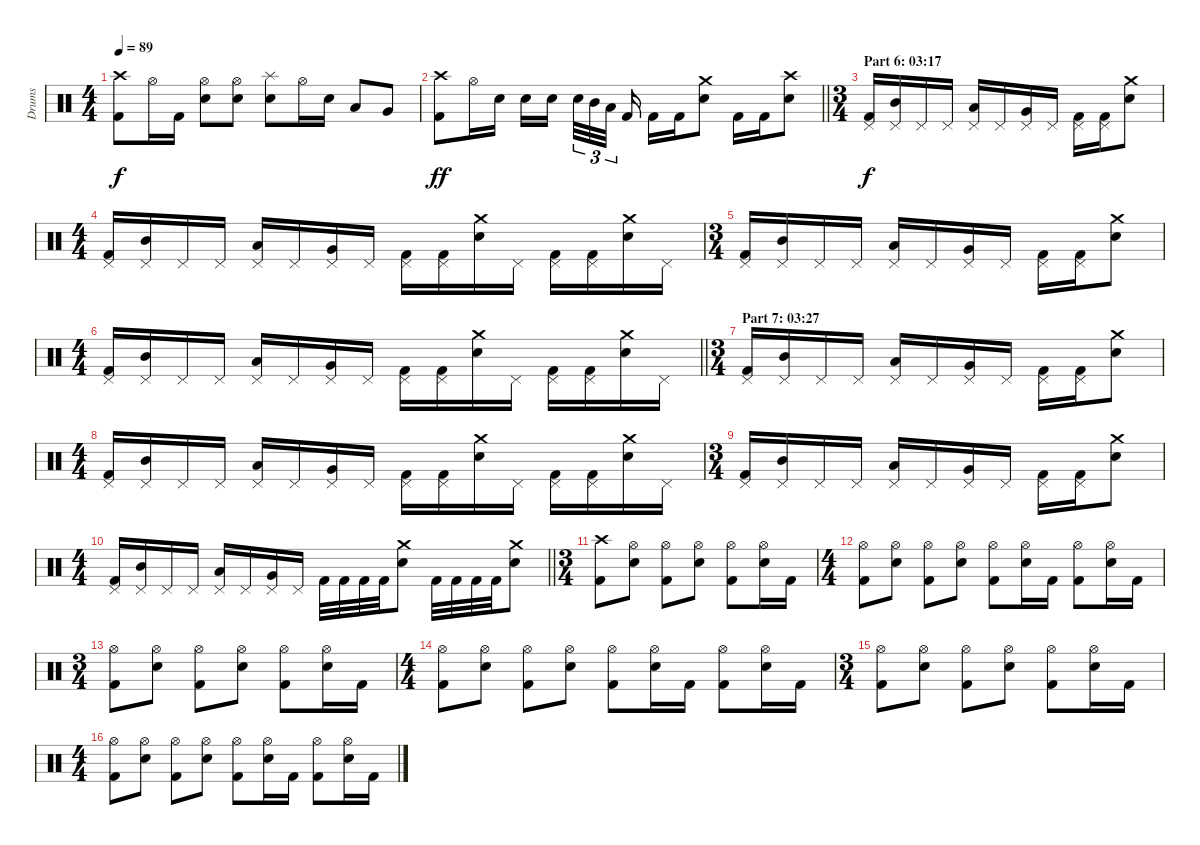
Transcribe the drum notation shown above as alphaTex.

\track ("Drums" "Drums") {instrument percussion}
\staff {score}
\articulation defaults
\ts (4 4)
\tempo 89
\clef neutral
\ks c
("Crash high (hit)" "Kick (hit) 2").8{dy f} "Hi-Hat (open)".16 "Kick (hit) 2".16 ("Hi-Hat (open)" "Electric Snare (hit)").8 ("Hi-Hat (open)" "Electric Snare (hit)").8 ("Splash (hit)" "Electric Snare (hit)").8 "Hi-Hat (open)".16 "Electric Snare (hit)".16 "Low Tom (hit)".8 "Very Low Tom (hit)".8 |
\barLineRight lightlight
("Crash high (hit)" "Kick (hit) 2").8{dy ff} "Hi-Hat (open)".16 "Electric Snare (hit)".16 "Electric Snare (hit)".16 "Electric Snare (hit)".16{beam splitsecondary} "Electric Snare (hit)".32{tu (3 2)} "Mid Tom (hit)".32{tu (3 2)} "Low Tom (hit)".32{tu (3 2) beam splitsecondary} "Kick (hit) 2".16 "Kick (hit) 2".16 "Kick (hit) 2".16 ("Crash medium (hit)" "Electric Snare (hit)").8 "Kick (hit) 2".16 "Kick (hit) 2".16 ("Crash high (hit)" "Electric Snare (hit)").8 |
\ts (3 4)
\section ("" "Part 6: 03:17")
("Pedal Hi-Hat (hit)" "Kick (hit) 2").16{dy f} ("Pedal Hi-Hat (hit)" "Mid Tom (hit)").16 "Pedal Hi-Hat (hit)".16 "Pedal Hi-Hat (hit)".16 ("Pedal Hi-Hat (hit)" "Low Tom (hit)").16 "Pedal Hi-Hat (hit)".16 ("Pedal Hi-Hat (hit)" "Very Low Tom (hit)").16 "Pedal Hi-Hat (hit)".16 ("Pedal Hi-Hat (hit)" "Kick (hit) 2").16 ("Pedal Hi-Hat (hit)" "Kick (hit) 2").16 ("Crash medium (hit)" "Electric Snare (hit)").8 |
\ts (4 4)
("Pedal Hi-Hat (hit)" "Kick (hit) 2").16 ("Pedal Hi-Hat (hit)" "Mid Tom (hit)").16 "Pedal Hi-Hat (hit)".16 "Pedal Hi-Hat (hit)".16 ("Pedal Hi-Hat (hit)" "Low Tom (hit)").16 "Pedal Hi-Hat (hit)".16 ("Pedal Hi-Hat (hit)" "Very Low Tom (hit)").16 "Pedal Hi-Hat (hit)".16 ("Pedal Hi-Hat (hit)" "Kick (hit) 2").16 ("Pedal Hi-Hat (hit)" "Kick (hit) 2").16 ("Crash medium (hit)" "Electric Snare (hit)").16 "Pedal Hi-Hat (hit)".16 ("Pedal Hi-Hat (hit)" "Kick (hit) 2").16 ("Pedal Hi-Hat (hit)" "Kick (hit) 2").16 ("Crash medium (hit)" "Electric Snare (hit)").16 "Pedal Hi-Hat (hit)".16 |
\ts (3 4)
("Pedal Hi-Hat (hit)" "Kick (hit) 2").16 ("Pedal Hi-Hat (hit)" "Mid Tom (hit)").16 "Pedal Hi-Hat (hit)".16 "Pedal Hi-Hat (hit)".16 ("Pedal Hi-Hat (hit)" "Low Tom (hit)").16 "Pedal Hi-Hat (hit)".16 ("Pedal Hi-Hat (hit)" "Very Low Tom (hit)").16 "Pedal Hi-Hat (hit)".16 ("Pedal Hi-Hat (hit)" "Kick (hit) 2").16 ("Pedal Hi-Hat (hit)" "Kick (hit) 2").16 ("Crash medium (hit)" "Electric Snare (hit)").8 |
\ts (4 4)
\barLineRight lightlight
("Pedal Hi-Hat (hit)" "Kick (hit) 2").16 ("Pedal Hi-Hat (hit)" "Mid Tom (hit)").16 "Pedal Hi-Hat (hit)".16 "Pedal Hi-Hat (hit)".16 ("Pedal Hi-Hat (hit)" "Low Tom (hit)").16 "Pedal Hi-Hat (hit)".16 ("Pedal Hi-Hat (hit)" "Very Low Tom (hit)").16 "Pedal Hi-Hat (hit)".16 ("Pedal Hi-Hat (hit)" "Kick (hit) 2").16 ("Pedal Hi-Hat (hit)" "Kick (hit) 2").16 ("Crash medium (hit)" "Electric Snare (hit)").16 "Pedal Hi-Hat (hit)".16 ("Pedal Hi-Hat (hit)" "Kick (hit) 2").16 ("Pedal Hi-Hat (hit)" "Kick (hit) 2").16 ("Crash medium (hit)" "Electric Snare (hit)").16 "Pedal Hi-Hat (hit)".16 |
\ts (3 4)
\section ("" "Part 7: 03:27")
("Pedal Hi-Hat (hit)" "Kick (hit) 2").16 ("Pedal Hi-Hat (hit)" "Mid Tom (hit)").16 "Pedal Hi-Hat (hit)".16 "Pedal Hi-Hat (hit)".16 ("Pedal Hi-Hat (hit)" "Low Tom (hit)").16 "Pedal Hi-Hat (hit)".16 ("Pedal Hi-Hat (hit)" "Very Low Tom (hit)").16 "Pedal Hi-Hat (hit)".16 ("Pedal Hi-Hat (hit)" "Kick (hit) 2").16 ("Pedal Hi-Hat (hit)" "Kick (hit) 2").16 ("Crash medium (hit)" "Electric Snare (hit)").8 |
\ts (4 4)
("Pedal Hi-Hat (hit)" "Kick (hit) 2").16 ("Pedal Hi-Hat (hit)" "Mid Tom (hit)").16 "Pedal Hi-Hat (hit)".16 "Pedal Hi-Hat (hit)".16 ("Pedal Hi-Hat (hit)" "Low Tom (hit)").16 "Pedal Hi-Hat (hit)".16 ("Pedal Hi-Hat (hit)" "Very Low Tom (hit)").16 "Pedal Hi-Hat (hit)".16 ("Pedal Hi-Hat (hit)" "Kick (hit) 2").16 ("Pedal Hi-Hat (hit)" "Kick (hit) 2").16 ("Crash medium (hit)" "Electric Snare (hit)").16 "Pedal Hi-Hat (hit)".16 ("Pedal Hi-Hat (hit)" "Kick (hit) 2").16 ("Pedal Hi-Hat (hit)" "Kick (hit) 2").16 ("Crash medium (hit)" "Electric Snare (hit)").16 "Pedal Hi-Hat (hit)".16 |
\ts (3 4)
("Pedal Hi-Hat (hit)" "Kick (hit) 2").16 ("Pedal Hi-Hat (hit)" "Mid Tom (hit)").16 "Pedal Hi-Hat (hit)".16 "Pedal Hi-Hat (hit)".16 ("Pedal Hi-Hat (hit)" "Low Tom (hit)").16 "Pedal Hi-Hat (hit)".16 ("Pedal Hi-Hat (hit)" "Very Low Tom (hit)").16 "Pedal Hi-Hat (hit)".16 ("Pedal Hi-Hat (hit)" "Kick (hit) 2").16 ("Pedal Hi-Hat (hit)" "Kick (hit) 2").16 ("Crash medium (hit)" "Electric Snare (hit)").8 |
\ts (4 4)
\barLineRight lightlight
("Pedal Hi-Hat (hit)" "Kick (hit) 2").16 ("Pedal Hi-Hat (hit)" "Mid Tom (hit)").16 "Pedal Hi-Hat (hit)".16 "Pedal Hi-Hat (hit)".16 ("Pedal Hi-Hat (hit)" "Low Tom (hit)").16 "Pedal Hi-Hat (hit)".16 ("Pedal Hi-Hat (hit)" "Very Low Tom (hit)").16 "Pedal Hi-Hat (hit)".16 "Kick (hit) 2".32 "Kick (hit) 2".32 "Kick (hit) 2".32 "Kick (hit) 2".32 ("Crash medium (hit)" "Electric Snare (hit)").8 "Kick (hit) 2".32 "Kick (hit) 2".32 "Kick (hit) 2".32 "Kick (hit) 2".32 ("Crash medium (hit)" "Electric Snare (hit)").8 |
\ts (3 4)
("Crash high (hit)" "Kick (hit) 2").8 ("Hi-Hat (open)" "Electric Snare (hit)").8 ("Hi-Hat (open)" "Kick (hit) 2").8 ("Hi-Hat (open)" "Electric Snare (hit)").8 ("Hi-Hat (open)" "Kick (hit) 2").8 ("Hi-Hat (open)" "Electric Snare (hit)").16 "Kick (hit) 2".16 |
\ts (4 4)
("Hi-Hat (open)" "Kick (hit) 2").8 ("Hi-Hat (open)" "Electric Snare (hit)").8 ("Hi-Hat (open)" "Kick (hit) 2").8 ("Hi-Hat (open)" "Electric Snare (hit)").8 ("Hi-Hat (open)" "Kick (hit) 2").8 ("Hi-Hat (open)" "Electric Snare (hit)").16 "Kick (hit) 2".16 ("Hi-Hat (open)" "Kick (hit) 2").8 ("Hi-Hat (open)" "Electric Snare (hit)").16 "Kick (hit) 2".16 |
\ts (3 4)
("Hi-Hat (open)" "Kick (hit) 2").8 ("Hi-Hat (open)" "Electric Snare (hit)").8 ("Hi-Hat (open)" "Kick (hit) 2").8 ("Hi-Hat (open)" "Electric Snare (hit)").8 ("Hi-Hat (open)" "Kick (hit) 2").8 ("Hi-Hat (open)" "Electric Snare (hit)").16 "Kick (hit) 2".16 |
\ts (4 4)
("Hi-Hat (open)" "Kick (hit) 2").8 ("Hi-Hat (open)" "Electric Snare (hit)").8 ("Hi-Hat (open)" "Kick (hit) 2").8 ("Hi-Hat (open)" "Electric Snare (hit)").8 ("Hi-Hat (open)" "Kick (hit) 2").8 ("Hi-Hat (open)" "Electric Snare (hit)").16 "Kick (hit) 2".16 ("Hi-Hat (open)" "Kick (hit) 2").8 ("Hi-Hat (open)" "Electric Snare (hit)").16 "Kick (hit) 2".16 |
\ts (3 4)
("Hi-Hat (open)" "Kick (hit) 2").8 ("Hi-Hat (open)" "Electric Snare (hit)").8 ("Hi-Hat (open)" "Kick (hit) 2").8 ("Hi-Hat (open)" "Electric Snare (hit)").8 ("Hi-Hat (open)" "Kick (hit) 2").8 ("Hi-Hat (open)" "Electric Snare (hit)").16 "Kick (hit) 2".16 |
\ts (4 4)
("Hi-Hat (open)" "Kick (hit) 2").8 ("Hi-Hat (open)" "Electric Snare (hit)").8 ("Hi-Hat (open)" "Kick (hit) 2").8 ("Hi-Hat (open)" "Electric Snare (hit)").8 ("Hi-Hat (open)" "Kick (hit) 2").8 ("Hi-Hat (open)" "Electric Snare (hit)").16 "Kick (hit) 2".16 ("Hi-Hat (open)" "Kick (hit) 2").8 ("Hi-Hat (open)" "Electric Snare (hit)").16 "Kick (hit) 2".16
